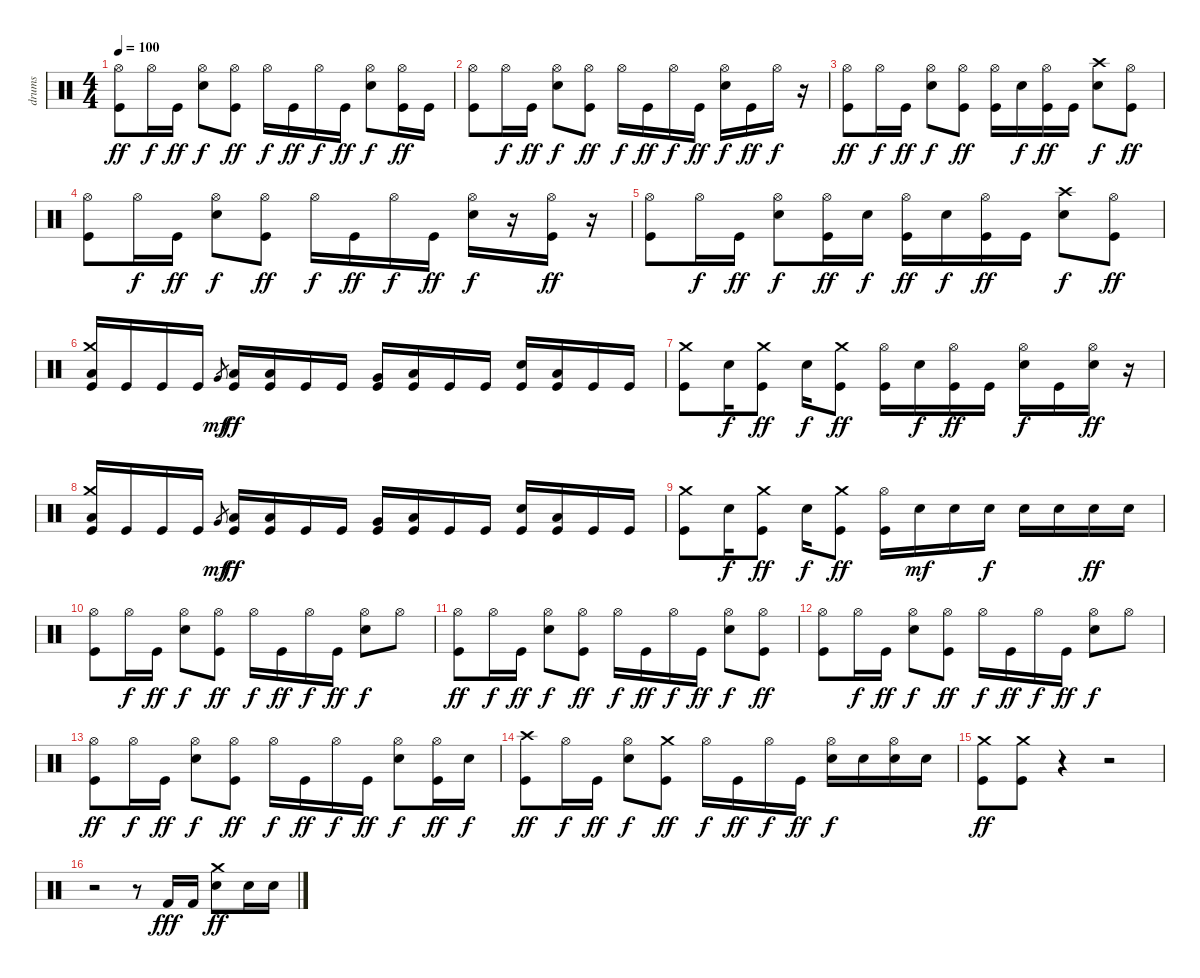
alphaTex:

\track ("drums" "drums") {instrument percussion}
\staff {score}
\articulation defaults
\ts (4 4)
\tempo 100
\clef neutral
\ks c
("Hi-Hat (open)" "Kick (hit)").8{dy ff} "Hi-Hat (open)".16{dy f} "Kick (hit)".16{dy ff} ("Hi-Hat (open)" "Snare (hit) 2").8{dy f} ("Hi-Hat (open)" "Kick (hit)").8{dy ff} "Hi-Hat (open)".16{dy f} "Kick (hit)".16{dy ff} "Hi-Hat (open)".16{dy f} "Kick (hit)".16{dy ff} ("Hi-Hat (open)" "Snare (hit) 2").8{dy f} ("Hi-Hat (open)" "Kick (hit)").16{dy ff} "Kick (hit)".16 |
("Hi-Hat (open)" "Kick (hit)").8 "Hi-Hat (open)".16{dy f} "Kick (hit)".16{dy ff} ("Hi-Hat (open)" "Snare (hit) 2").8{dy f} ("Hi-Hat (open)" "Kick (hit)").8{dy ff} "Hi-Hat (open)".16{dy f} "Kick (hit)".16{dy ff} "Hi-Hat (open)".16{dy f} "Kick (hit)".16{dy ff} ("Hi-Hat (open)" "Snare (hit) 2").16{dy f} "Kick (hit)".16{dy ff} "Hi-Hat (open)".16{dy f} r.16 |
("Hi-Hat (open)" "Kick (hit)").8{dy ff} "Hi-Hat (open)".16{dy f} "Kick (hit)".16{dy ff} ("Hi-Hat (open)" "Snare (hit) 2").8{dy f} ("Hi-Hat (open)" "Kick (hit)").8{dy ff} ("Hi-Hat (open)" "Kick (hit)").16 "Snare (hit) 2".16{dy f} ("Hi-Hat (open)" "Kick (hit)").16{dy ff} "Kick (hit)".16 ("Crash high (hit)" "Snare (hit) 2").8{dy f} ("Hi-Hat (open)" "Kick (hit)").8{dy ff} |
("Hi-Hat (open)" "Kick (hit)").8 "Hi-Hat (open)".16{dy f} "Kick (hit)".16{dy ff} ("Hi-Hat (open)" "Snare (hit) 2").8{dy f} ("Hi-Hat (open)" "Kick (hit)").8{dy ff} "Hi-Hat (open)".16{dy f} "Kick (hit)".16{dy ff} "Hi-Hat (open)".16{dy f} "Kick (hit)".16{dy ff} ("Hi-Hat (open)" "Snare (hit) 2").16{dy f} r.16 ("Hi-Hat (open)" "Kick (hit)").16{dy ff} r.16 |
("Hi-Hat (open)" "Kick (hit)").8 "Hi-Hat (open)".16{dy f} "Kick (hit)".16{dy ff} ("Hi-Hat (open)" "Snare (hit) 2").8{dy f} ("Hi-Hat (open)" "Kick (hit)").16{dy ff} "Snare (hit) 2".16{dy f} ("Hi-Hat (open)" "Kick (hit)").16{dy ff} "Snare (hit) 2".16{dy f} ("Hi-Hat (open)" "Kick (hit)").16{dy ff} "Kick (hit)".16 ("Crash high (hit)" "Snare (hit) 2").8{dy f} ("Hi-Hat (open)" "Kick (hit)").8{dy ff} |
("Crash medium (hit)" "Low Floor Tom (hit)" "Kick (hit)").16 "Kick (hit)".16 "Kick (hit)".16 "Kick (hit)".16 "Very Low Tom (hit)".8{gr dy mf} ("Low Floor Tom (hit)" "Kick (hit)").16{dy ff} ("Low Floor Tom (hit)" "Kick (hit)").16 "Kick (hit)".16 "Kick (hit)".16 ("Very Low Tom (hit)" "Kick (hit)").16 ("Low Floor Tom (hit)" "Kick (hit)").16 "Kick (hit)".16 "Kick (hit)".16 ("Snare (hit) 2" "Kick (hit)").16 ("Low Floor Tom (hit)" "Kick (hit)").16 "Kick (hit)".16 "Kick (hit)".16 |
("Crash medium (hit)" "Kick (hit)").8 "Snare (hit) 2".16{dy f} ("Crash medium (hit)" "Kick (hit)").8{dy ff} "Snare (hit) 2".16{dy f} ("Crash medium (hit)" "Kick (hit)").8{dy ff} ("Hi-Hat (open)" "Kick (hit)").16 "Snare (hit) 2".16{dy f} ("Hi-Hat (open)" "Kick (hit)").16{dy ff} "Kick (hit)".16 ("Hi-Hat (open)" "Snare (hit) 2").16{dy f} "Kick (hit)".16 ("Hi-Hat (open)" "Snare (hit) 2").16{dy ff} r.16 |
("Crash medium (hit)" "Low Floor Tom (hit)" "Kick (hit)").16 "Kick (hit)".16 "Kick (hit)".16 "Kick (hit)".16 "Very Low Tom (hit)".8{gr dy mf} ("Low Floor Tom (hit)" "Kick (hit)").16{dy ff} ("Low Floor Tom (hit)" "Kick (hit)").16 "Kick (hit)".16 "Kick (hit)".16 ("Very Low Tom (hit)" "Kick (hit)").16 ("Low Floor Tom (hit)" "Kick (hit)").16 "Kick (hit)".16 "Kick (hit)".16 ("Snare (hit) 2" "Kick (hit)").16 ("Low Floor Tom (hit)" "Kick (hit)").16 "Kick (hit)".16 "Kick (hit)".16 |
("Crash medium (hit)" "Kick (hit)").8 "Snare (hit) 2".16{dy f} ("Crash medium (hit)" "Kick (hit)").8{dy ff} "Snare (hit) 2".16{dy f} ("Crash medium (hit)" "Kick (hit)").8{dy ff} ("Hi-Hat (open)" "Kick (hit)").16 "Snare (hit) 2".16{dy mf} "Snare (hit) 2".16 "Snare (hit) 2".16{dy f} "Snare (hit) 2".16 "Snare (hit) 2".16 "Snare (hit) 2".16{dy ff} "Snare (hit) 2".16 |
("Hi-Hat (open)" "Kick (hit)").8 "Hi-Hat (open)".16{dy f} "Kick (hit)".16{dy ff} ("Hi-Hat (open)" "Snare (hit) 2").8{dy f} ("Hi-Hat (open)" "Kick (hit)").8{dy ff} "Hi-Hat (open)".16{dy f} "Kick (hit)".16{dy ff} "Hi-Hat (open)".16{dy f} "Kick (hit)".16{dy ff} ("Hi-Hat (open)" "Snare (hit) 2").8{dy f} "Hi-Hat (open)".8 |
("Hi-Hat (open)" "Kick (hit)").8{dy ff} "Hi-Hat (open)".16{dy f} "Kick (hit)".16{dy ff} ("Hi-Hat (open)" "Snare (hit) 2").8{dy f} ("Hi-Hat (open)" "Kick (hit)").8{dy ff} "Hi-Hat (open)".16{dy f} "Kick (hit)".16{dy ff} "Hi-Hat (open)".16{dy f} "Kick (hit)".16{dy ff} ("Hi-Hat (open)" "Snare (hit) 2").8{dy f} ("Hi-Hat (open)" "Kick (hit)").8{dy ff} |
("Hi-Hat (open)" "Kick (hit)").8 "Hi-Hat (open)".16{dy f} "Kick (hit)".16{dy ff} ("Hi-Hat (open)" "Snare (hit) 2").8{dy f} ("Hi-Hat (open)" "Kick (hit)").8{dy ff} "Hi-Hat (open)".16{dy f} "Kick (hit)".16{dy ff} "Hi-Hat (open)".16{dy f} "Kick (hit)".16{dy ff} ("Hi-Hat (open)" "Snare (hit) 2").8{dy f} "Hi-Hat (open)".8 |
("Hi-Hat (open)" "Kick (hit)").8{dy ff} "Hi-Hat (open)".16{dy f} "Kick (hit)".16{dy ff} ("Hi-Hat (open)" "Snare (hit) 2").8{dy f} ("Hi-Hat (open)" "Kick (hit)").8{dy ff} "Hi-Hat (open)".16{dy f} "Kick (hit)".16{dy ff} "Hi-Hat (open)".16{dy f} "Kick (hit)".16{dy ff} ("Hi-Hat (open)" "Snare (hit) 2").8{dy f} ("Hi-Hat (open)" "Kick (hit)").16{dy ff} "Snare (hit) 2".16{dy f} |
("Crash high (hit)" "Kick (hit)").8{dy ff} "Hi-Hat (open)".16{dy f} "Kick (hit)".16{dy ff} ("Hi-Hat (open)" "Snare (hit) 2").8{dy f} ("Crash medium (hit)" "Kick (hit)").8{dy ff} "Hi-Hat (open)".16{dy f} "Kick (hit)".16{dy ff} "Hi-Hat (open)".16{dy f} "Kick (hit)".16{dy ff} ("Hi-Hat (open)" "Snare (hit) 2").16{dy f} "Snare (hit) 2".16 ("Hi-Hat (open)" "Snare (hit) 2").16 "Snare (hit) 2".16 |
("Crash medium (hit)" "Kick (hit)").8{dy ff} ("Crash medium (hit)" "Kick (hit)").8 r.4 r.2 |
r.2 r.8 "Kick (hit) 2".16{dy fff} "Kick (hit) 2".16 ("Crash medium (hit)" "Snare (hit) 2").8{dy ff} "Snare (hit) 2".16 "Snare (hit) 2".16
